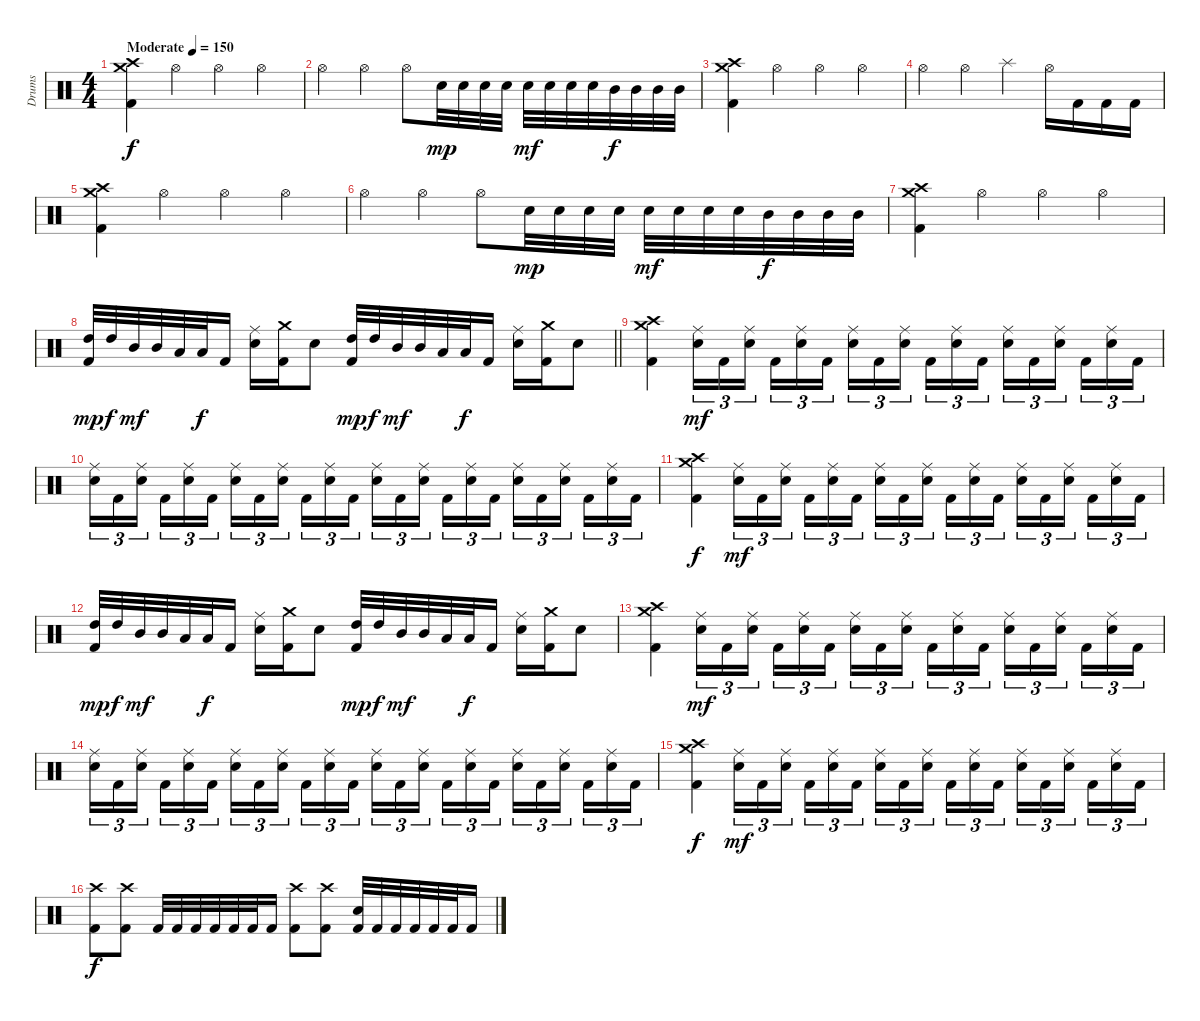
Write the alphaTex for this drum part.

\track ("Drums" "Drums") {instrument percussion}
\staff {score}
\articulation defaults
\ts (4 4)
\tempo (150 "Moderate")
\clef neutral
\ks c
("Crash high (hit)" "Crash medium (hit)" "Kick (hit) 2").4{dy f} "Hi-Hat (open)".4 "Hi-Hat (open)".4 "Hi-Hat (open)".4 |
"Hi-Hat (open)".4 "Hi-Hat (open)".4 "Hi-Hat (open)".8 "Snare (hit) 2".32{dy mp} "Snare (hit) 2".32 "Snare (hit) 2".32 "Snare (hit) 2".32 "Snare (hit) 2".32{dy mf} "Snare (hit) 2".32 "Snare (hit) 2".32 "Snare (hit) 2".32 "Mid Tom (hit)".32{dy f} "Mid Tom (hit)".32 "Mid Tom (hit)".32 "Mid Tom (hit)".32 |
("Crash high (hit)" "Crash medium (hit)" "Kick (hit) 2").4 "Hi-Hat (open)".4 "Hi-Hat (open)".4 "Hi-Hat (open)".4 |
"Hi-Hat (open)".4 "Hi-Hat (open)".4 "Splash (hit)".4 "Hi-Hat (open)".16 "Kick (hit) 2".16 "Kick (hit) 2".16 "Kick (hit) 2".16 |
("Crash high (hit)" "Crash medium (hit)" "Kick (hit) 2").4 "Hi-Hat (open)".4 "Hi-Hat (open)".4 "Hi-Hat (open)".4 |
"Hi-Hat (open)".4 "Hi-Hat (open)".4 "Hi-Hat (open)".8 "Snare (hit) 2".32{dy mp} "Snare (hit) 2".32 "Snare (hit) 2".32 "Snare (hit) 2".32 "Snare (hit) 2".32{dy mf} "Snare (hit) 2".32 "Snare (hit) 2".32 "Snare (hit) 2".32 "Mid Tom (hit)".32{dy f} "Mid Tom (hit)".32 "Mid Tom (hit)".32 "Mid Tom (hit)".32 |
("Crash high (hit)" "Crash medium (hit)" "Kick (hit) 2").4 "Hi-Hat (open)".4 "Hi-Hat (open)".4 "Hi-Hat (open)".4 |
\barLineRight lightlight
("High Tom (hit)" "Kick (hit) 2").32{dy mp} "High Tom (hit)".32{dy f} "Mid Tom (hit)".32{dy mf} "Mid Tom (hit)".32 "Low Tom (hit)".32 "Low Tom (hit)".32{dy f} "Kick (hit) 2".16 ("Ride (middle)" "Snare (hit) 2").16 ("Crash medium (hit)" "Kick (hit) 2").16 "Snare (hit) 2".8 ("High Tom (hit)" "Kick (hit) 2").32{dy mp} "High Tom (hit)".32{dy f} "Mid Tom (hit)".32{dy mf} "Mid Tom (hit)".32 "Low Tom (hit)".32 "Low Tom (hit)".32{dy f} "Kick (hit) 2".16 ("Ride (middle)" "Snare (hit) 2").16 ("Crash medium (hit)" "Kick (hit) 2").16 "Snare (hit) 2".8 |
\section ("" "")
("Crash medium (hit)" "Crash high (hit)" "Kick (hit) 2").4 ("Ride (middle)" "Snare (hit) 2").16{tu (3 2) dy mf} "Kick (hit) 2".16{tu (3 2)} ("Ride (middle)" "Snare (hit) 2").16{tu (3 2) beam splitsecondary} "Kick (hit) 2".16{tu (3 2)} ("Ride (middle)" "Snare (hit) 2").16{tu (3 2)} "Kick (hit) 2".16{tu (3 2)} ("Ride (middle)" "Snare (hit) 2").16{tu (3 2)} "Kick (hit) 2".16{tu (3 2)} ("Ride (middle)" "Snare (hit) 2").16{tu (3 2) beam splitsecondary} "Kick (hit) 2".16{tu (3 2)} ("Ride (middle)" "Snare (hit) 2").16{tu (3 2)} "Kick (hit) 2".16{tu (3 2)} ("Ride (middle)" "Snare (hit) 2").16{tu (3 2)} "Kick (hit) 2".16{tu (3 2)} ("Ride (middle)" "Snare (hit) 2").16{tu (3 2) beam splitsecondary} "Kick (hit) 2".16{tu (3 2)} ("Ride (middle)" "Snare (hit) 2").16{tu (3 2)} "Kick (hit) 2".16{tu (3 2)} |
("Ride (middle)" "Snare (hit) 2").16{tu (3 2)} "Kick (hit) 2".16{tu (3 2)} ("Ride (middle)" "Snare (hit) 2").16{tu (3 2) beam splitsecondary} "Kick (hit) 2".16{tu (3 2)} ("Ride (middle)" "Snare (hit) 2").16{tu (3 2)} "Kick (hit) 2".16{tu (3 2)} ("Ride (middle)" "Snare (hit) 2").16{tu (3 2)} "Kick (hit) 2".16{tu (3 2)} ("Ride (middle)" "Snare (hit) 2").16{tu (3 2) beam splitsecondary} "Kick (hit) 2".16{tu (3 2)} ("Ride (middle)" "Snare (hit) 2").16{tu (3 2)} "Kick (hit) 2".16{tu (3 2)} ("Ride (middle)" "Snare (hit) 2").16{tu (3 2)} "Kick (hit) 2".16{tu (3 2)} ("Ride (middle)" "Snare (hit) 2").16{tu (3 2) beam splitsecondary} "Kick (hit) 2".16{tu (3 2)} ("Ride (middle)" "Snare (hit) 2").16{tu (3 2)} "Kick (hit) 2".16{tu (3 2)} ("Ride (middle)" "Snare (hit) 2").16{tu (3 2)} "Kick (hit) 2".16{tu (3 2)} ("Ride (middle)" "Snare (hit) 2").16{tu (3 2) beam splitsecondary} "Kick (hit) 2".16{tu (3 2)} ("Ride (middle)" "Snare (hit) 2").16{tu (3 2)} "Kick (hit) 2".16{tu (3 2)} |
("Crash medium (hit)" "Crash high (hit)" "Kick (hit) 2").4{dy f} ("Ride (middle)" "Snare (hit) 2").16{tu (3 2) dy mf} "Kick (hit) 2".16{tu (3 2)} ("Ride (middle)" "Snare (hit) 2").16{tu (3 2) beam splitsecondary} "Kick (hit) 2".16{tu (3 2)} ("Ride (middle)" "Snare (hit) 2").16{tu (3 2)} "Kick (hit) 2".16{tu (3 2)} ("Ride (middle)" "Snare (hit) 2").16{tu (3 2)} "Kick (hit) 2".16{tu (3 2)} ("Ride (middle)" "Snare (hit) 2").16{tu (3 2) beam splitsecondary} "Kick (hit) 2".16{tu (3 2)} ("Ride (middle)" "Snare (hit) 2").16{tu (3 2)} "Kick (hit) 2".16{tu (3 2)} ("Ride (middle)" "Snare (hit) 2").16{tu (3 2)} "Kick (hit) 2".16{tu (3 2)} ("Ride (middle)" "Snare (hit) 2").16{tu (3 2) beam splitsecondary} "Kick (hit) 2".16{tu (3 2)} ("Ride (middle)" "Snare (hit) 2").16{tu (3 2)} "Kick (hit) 2".16{tu (3 2)} |
("High Tom (hit)" "Kick (hit) 2").32{dy mp} "High Tom (hit)".32{dy f} "Mid Tom (hit)".32{dy mf} "Mid Tom (hit)".32 "Low Tom (hit)".32 "Low Tom (hit)".32{dy f} "Kick (hit) 2".16 ("Ride (middle)" "Snare (hit) 2").16 ("Crash medium (hit)" "Kick (hit) 2").16 "Snare (hit) 2".8 ("High Tom (hit)" "Kick (hit) 2").32{dy mp} "High Tom (hit)".32{dy f} "Mid Tom (hit)".32{dy mf} "Mid Tom (hit)".32 "Low Tom (hit)".32 "Low Tom (hit)".32{dy f} "Kick (hit) 2".16 ("Ride (middle)" "Snare (hit) 2").16 ("Crash medium (hit)" "Kick (hit) 2").16 "Snare (hit) 2".8 |
("Crash medium (hit)" "Crash high (hit)" "Kick (hit) 2").4 ("Ride (middle)" "Snare (hit) 2").16{tu (3 2) dy mf} "Kick (hit) 2".16{tu (3 2)} ("Ride (middle)" "Snare (hit) 2").16{tu (3 2) beam splitsecondary} "Kick (hit) 2".16{tu (3 2)} ("Ride (middle)" "Snare (hit) 2").16{tu (3 2)} "Kick (hit) 2".16{tu (3 2)} ("Ride (middle)" "Snare (hit) 2").16{tu (3 2)} "Kick (hit) 2".16{tu (3 2)} ("Ride (middle)" "Snare (hit) 2").16{tu (3 2) beam splitsecondary} "Kick (hit) 2".16{tu (3 2)} ("Ride (middle)" "Snare (hit) 2").16{tu (3 2)} "Kick (hit) 2".16{tu (3 2)} ("Ride (middle)" "Snare (hit) 2").16{tu (3 2)} "Kick (hit) 2".16{tu (3 2)} ("Ride (middle)" "Snare (hit) 2").16{tu (3 2) beam splitsecondary} "Kick (hit) 2".16{tu (3 2)} ("Ride (middle)" "Snare (hit) 2").16{tu (3 2)} "Kick (hit) 2".16{tu (3 2)} |
("Ride (middle)" "Snare (hit) 2").16{tu (3 2)} "Kick (hit) 2".16{tu (3 2)} ("Ride (middle)" "Snare (hit) 2").16{tu (3 2) beam splitsecondary} "Kick (hit) 2".16{tu (3 2)} ("Ride (middle)" "Snare (hit) 2").16{tu (3 2)} "Kick (hit) 2".16{tu (3 2)} ("Ride (middle)" "Snare (hit) 2").16{tu (3 2)} "Kick (hit) 2".16{tu (3 2)} ("Ride (middle)" "Snare (hit) 2").16{tu (3 2) beam splitsecondary} "Kick (hit) 2".16{tu (3 2)} ("Ride (middle)" "Snare (hit) 2").16{tu (3 2)} "Kick (hit) 2".16{tu (3 2)} ("Ride (middle)" "Snare (hit) 2").16{tu (3 2)} "Kick (hit) 2".16{tu (3 2)} ("Ride (middle)" "Snare (hit) 2").16{tu (3 2) beam splitsecondary} "Kick (hit) 2".16{tu (3 2)} ("Ride (middle)" "Snare (hit) 2").16{tu (3 2)} "Kick (hit) 2".16{tu (3 2)} ("Ride (middle)" "Snare (hit) 2").16{tu (3 2)} "Kick (hit) 2".16{tu (3 2)} ("Ride (middle)" "Snare (hit) 2").16{tu (3 2) beam splitsecondary} "Kick (hit) 2".16{tu (3 2)} ("Ride (middle)" "Snare (hit) 2").16{tu (3 2)} "Kick (hit) 2".16{tu (3 2)} |
("Crash medium (hit)" "Crash high (hit)" "Kick (hit) 2").4{dy f} ("Ride (middle)" "Snare (hit) 2").16{tu (3 2) dy mf} "Kick (hit) 2".16{tu (3 2)} ("Ride (middle)" "Snare (hit) 2").16{tu (3 2) beam splitsecondary} "Kick (hit) 2".16{tu (3 2)} ("Ride (middle)" "Snare (hit) 2").16{tu (3 2)} "Kick (hit) 2".16{tu (3 2)} ("Ride (middle)" "Snare (hit) 2").16{tu (3 2)} "Kick (hit) 2".16{tu (3 2)} ("Ride (middle)" "Snare (hit) 2").16{tu (3 2) beam splitsecondary} "Kick (hit) 2".16{tu (3 2)} ("Ride (middle)" "Snare (hit) 2").16{tu (3 2)} "Kick (hit) 2".16{tu (3 2)} ("Ride (middle)" "Snare (hit) 2").16{tu (3 2)} "Kick (hit) 2".16{tu (3 2)} ("Ride (middle)" "Snare (hit) 2").16{tu (3 2) beam splitsecondary} "Kick (hit) 2".16{tu (3 2)} ("Ride (middle)" "Snare (hit) 2").16{tu (3 2)} "Kick (hit) 2".16{tu (3 2)} |
("Crash high (hit)" "Kick (hit) 2").8{dy f} ("Crash high (hit)" "Kick (hit) 2").8 "Kick (hit) 2".32 "Kick (hit) 2".32 "Kick (hit) 2".32 "Kick (hit) 2".32 "Kick (hit) 2".32 "Kick (hit) 2".32 "Kick (hit) 2".16 ("Crash high (hit)" "Kick (hit) 2").8 ("Crash high (hit)" "Kick (hit) 2").8 ("Snare (hit) 2" "Kick (hit) 2").32 "Kick (hit) 2".32 "Kick (hit) 2".32 "Kick (hit) 2".32 "Kick (hit) 2".32 "Kick (hit) 2".32 "Kick (hit) 2".16
